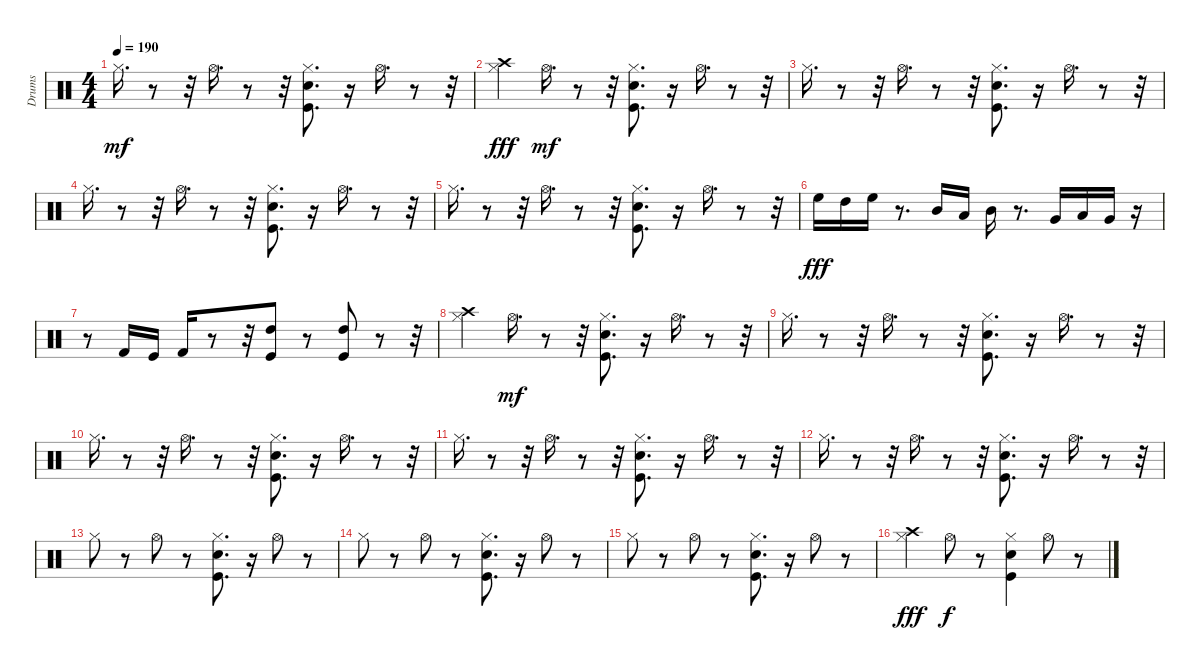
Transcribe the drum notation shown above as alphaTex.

\track ("Drums" "Drums") {instrument percussion}
\staff {score}
\articulation defaults
\ts (4 4)
\tempo 190
\clef neutral
\ks c "Hi-Hat (closed)".16{d dy mf}
r.8 r.32 "Hi-Hat (open)".16{d} r.8 r.32 ("Kick (hit)" "Snare (hit) 2" "Hi-Hat (closed)").8{d} r.16 "Hi-Hat (open)".16{d} r.8 r.32 |
("Crash high (hit)" "Hi-Hat (closed)").4{dy fff} "Hi-Hat (open)".16{d dy mf} r.8 r.32 ("Kick (hit)" "Snare (hit) 2" "Hi-Hat (closed)").8{d} r.16 "Hi-Hat (open)".16{d} r.8 r.32 |
"Hi-Hat (closed)".16{d} r.8 r.32 "Hi-Hat (open)".16{d} r.8 r.32 ("Kick (hit)" "Snare (hit) 2" "Hi-Hat (closed)").8{d} r.16 "Hi-Hat (open)".16{d} r.8 r.32 |
"Hi-Hat (closed)".16{d} r.8 r.32 "Hi-Hat (open)".16{d} r.8 r.32 ("Kick (hit)" "Snare (hit) 2" "Hi-Hat (closed)").8{d} r.16 "Hi-Hat (open)".16{d} r.8 r.32 |
"Hi-Hat (closed)".16{d} r.8 r.32 "Hi-Hat (open)".16{d} r.8 r.32 ("Kick (hit)" "Snare (hit) 2" "Hi-Hat (closed)").8{d} r.16 "Hi-Hat (open)".16{d} r.8 r.32 |
"High Floor Tom (hit)".16{dy fff} "High Tom (hit)".16 "High Floor Tom (hit)".16 r.8{d} "Mid Tom (hit)".16 "Low Tom (hit)".16 "Mid Tom (hit)".16 r.8{d} "Very Low Tom (hit)".16 "Low Floor Tom (hit)".16 "Very Low Tom (hit)".16 r.16 |
r.8 "Kick (hit) 2".16 "Kick (hit)".16 "Kick (hit) 2".16 r.8 r.32 ("Kick (hit)" "High Tom (hit)").8 r.8 ("Kick (hit)" "High Tom (hit)").8 r.8 r.32 |
("Crash high (hit)" "Hi-Hat (closed)").4 "Hi-Hat (open)".16{d dy mf} r.8 r.32 ("Kick (hit)" "Snare (hit) 2" "Hi-Hat (closed)").8{d} r.16 "Hi-Hat (open)".16{d} r.8 r.32 |
"Hi-Hat (closed)".16{d} r.8 r.32 "Hi-Hat (open)".16{d} r.8 r.32 ("Kick (hit)" "Snare (hit) 2" "Hi-Hat (closed)").8{d} r.16 "Hi-Hat (open)".16{d} r.8 r.32 |
"Hi-Hat (closed)".16{d} r.8 r.32 "Hi-Hat (open)".16{d} r.8 r.32 ("Kick (hit)" "Snare (hit) 2" "Hi-Hat (closed)").8{d} r.16 "Hi-Hat (open)".16{d} r.8 r.32 |
"Hi-Hat (closed)".16{d} r.8 r.32 "Hi-Hat (open)".16{d} r.8 r.32 ("Kick (hit)" "Snare (hit) 2" "Hi-Hat (closed)").8{d} r.16 "Hi-Hat (open)".16{d} r.8 r.32 |
"Hi-Hat (closed)".16{d} r.8 r.32 "Hi-Hat (open)".16{d} r.8 r.32 ("Kick (hit)" "Snare (hit) 2" "Hi-Hat (closed)").8{d} r.16 "Hi-Hat (open)".16{d} r.8 r.32 |
"Hi-Hat (closed)".8 r.8 "Hi-Hat (open)".8 r.8 ("Kick (hit)" "Snare (hit) 2" "Hi-Hat (closed)").8{d} r.16 "Hi-Hat (open)".8 r.8 |
"Hi-Hat (closed)".8 r.8 "Hi-Hat (open)".8 r.8 ("Kick (hit)" "Snare (hit) 2" "Hi-Hat (closed)").8{d} r.16 "Hi-Hat (open)".8 r.8 |
"Hi-Hat (closed)".8 r.8 "Hi-Hat (open)".8 r.8 ("Kick (hit)" "Snare (hit) 2" "Hi-Hat (closed)").8{d} r.16 "Hi-Hat (open)".8 r.8 |
("Crash high (hit)" "Hi-Hat (closed)").4{dy fff} "Hi-Hat (open)".8{dy f} r.8 ("Kick (hit)" "Snare (hit) 2" "Hi-Hat (closed)").4 "Hi-Hat (open)".8 r.8
